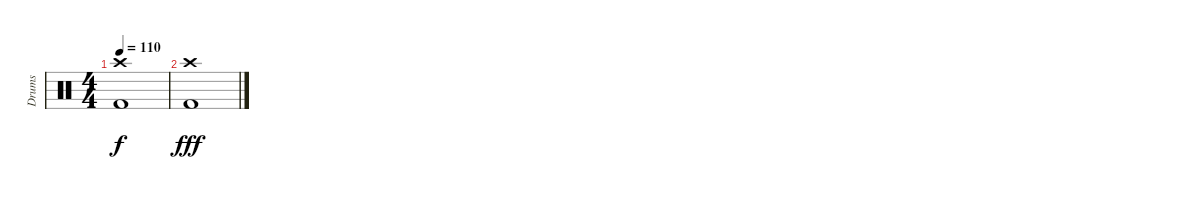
\track ("Drums" "Drums") {instrument percussion}
\staff {score}
\articulation defaults
\ts (4 4)
\tempo 110
\clef neutral
\ks c
("Crash high (hit)" "Kick (hit) 2").1{dy f} |
("Crash high (hit)" "Kick (hit) 2").1{dy fff}
